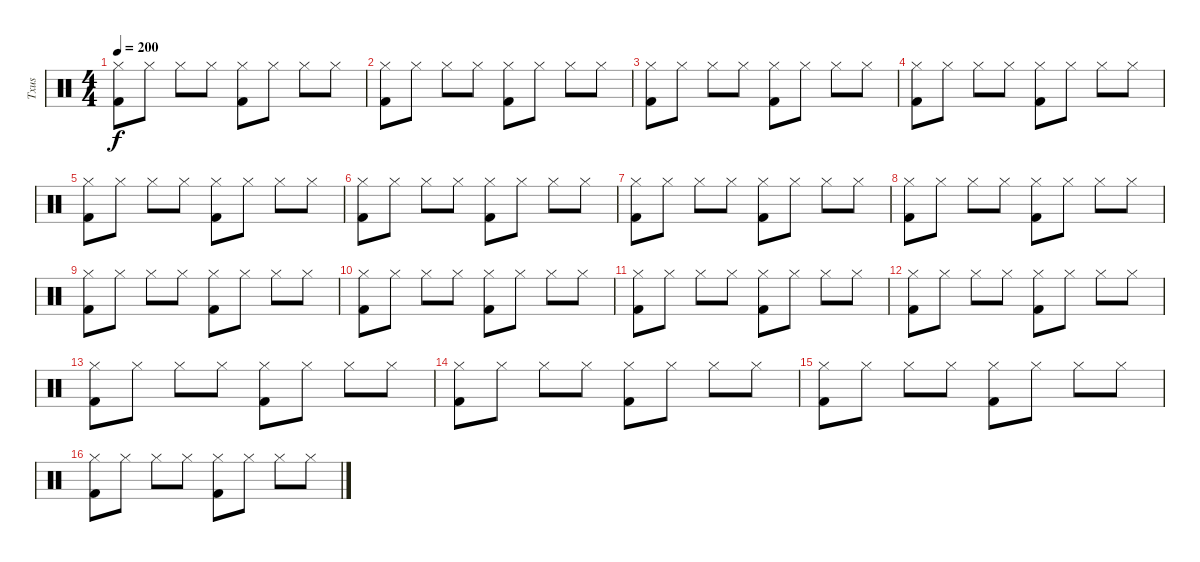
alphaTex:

\track ("Txus" "Txus") {instrument percussion}
\staff
\articulation defaults
\ts (4 4)
\tempo 200
\clef neutral
\ks c
("Kick (hit) 2" "Hi-Hat (closed)").8{dy f} "Hi-Hat (closed)".8 "Hi-Hat (closed)".8 "Hi-Hat (closed)".8 ("Kick (hit) 2" "Hi-Hat (closed)").8 "Hi-Hat (closed)".8 "Hi-Hat (closed)".8 "Hi-Hat (closed)".8 |
("Kick (hit) 2" "Hi-Hat (closed)").8 "Hi-Hat (closed)".8 "Hi-Hat (closed)".8 "Hi-Hat (closed)".8 ("Kick (hit) 2" "Hi-Hat (closed)").8 "Hi-Hat (closed)".8 "Hi-Hat (closed)".8 "Hi-Hat (closed)".8 |
("Kick (hit) 2" "Hi-Hat (closed)").8 "Hi-Hat (closed)".8 "Hi-Hat (closed)".8 "Hi-Hat (closed)".8 ("Kick (hit) 2" "Hi-Hat (closed)").8 "Hi-Hat (closed)".8 "Hi-Hat (closed)".8 "Hi-Hat (closed)".8 |
("Kick (hit) 2" "Hi-Hat (closed)").8 "Hi-Hat (closed)".8 "Hi-Hat (closed)".8 "Hi-Hat (closed)".8 ("Kick (hit) 2" "Hi-Hat (closed)").8 "Hi-Hat (closed)".8 "Hi-Hat (closed)".8 "Hi-Hat (closed)".8 |
("Kick (hit) 2" "Hi-Hat (closed)").8 "Hi-Hat (closed)".8 "Hi-Hat (closed)".8 "Hi-Hat (closed)".8 ("Kick (hit) 2" "Hi-Hat (closed)").8 "Hi-Hat (closed)".8 "Hi-Hat (closed)".8 "Hi-Hat (closed)".8 |
("Kick (hit) 2" "Hi-Hat (closed)").8 "Hi-Hat (closed)".8 "Hi-Hat (closed)".8 "Hi-Hat (closed)".8 ("Kick (hit) 2" "Hi-Hat (closed)").8 "Hi-Hat (closed)".8 "Hi-Hat (closed)".8 "Hi-Hat (closed)".8 |
("Kick (hit) 2" "Hi-Hat (closed)").8 "Hi-Hat (closed)".8 "Hi-Hat (closed)".8 "Hi-Hat (closed)".8 ("Kick (hit) 2" "Hi-Hat (closed)").8 "Hi-Hat (closed)".8 "Hi-Hat (closed)".8 "Hi-Hat (closed)".8 |
("Kick (hit) 2" "Hi-Hat (closed)").8 "Hi-Hat (closed)".8 "Hi-Hat (closed)".8 "Hi-Hat (closed)".8 ("Kick (hit) 2" "Hi-Hat (closed)").8 "Hi-Hat (closed)".8 "Hi-Hat (closed)".8 "Hi-Hat (closed)".8 |
("Kick (hit) 2" "Hi-Hat (closed)").8 "Hi-Hat (closed)".8 "Hi-Hat (closed)".8 "Hi-Hat (closed)".8 ("Kick (hit) 2" "Hi-Hat (closed)").8 "Hi-Hat (closed)".8 "Hi-Hat (closed)".8 "Hi-Hat (closed)".8 |
("Kick (hit) 2" "Hi-Hat (closed)").8 "Hi-Hat (closed)".8 "Hi-Hat (closed)".8 "Hi-Hat (closed)".8 ("Kick (hit) 2" "Hi-Hat (closed)").8 "Hi-Hat (closed)".8 "Hi-Hat (closed)".8 "Hi-Hat (closed)".8 |
("Kick (hit) 2" "Hi-Hat (closed)").8 "Hi-Hat (closed)".8 "Hi-Hat (closed)".8 "Hi-Hat (closed)".8 ("Kick (hit) 2" "Hi-Hat (closed)").8 "Hi-Hat (closed)".8 "Hi-Hat (closed)".8 "Hi-Hat (closed)".8 |
("Kick (hit) 2" "Hi-Hat (closed)").8 "Hi-Hat (closed)".8 "Hi-Hat (closed)".8 "Hi-Hat (closed)".8 ("Kick (hit) 2" "Hi-Hat (closed)").8 "Hi-Hat (closed)".8 "Hi-Hat (closed)".8 "Hi-Hat (closed)".8 |
("Kick (hit) 2" "Hi-Hat (closed)").8 "Hi-Hat (closed)".8 "Hi-Hat (closed)".8 "Hi-Hat (closed)".8 ("Kick (hit) 2" "Hi-Hat (closed)").8 "Hi-Hat (closed)".8 "Hi-Hat (closed)".8 "Hi-Hat (closed)".8 |
("Kick (hit) 2" "Hi-Hat (closed)").8 "Hi-Hat (closed)".8 "Hi-Hat (closed)".8 "Hi-Hat (closed)".8 ("Kick (hit) 2" "Hi-Hat (closed)").8 "Hi-Hat (closed)".8 "Hi-Hat (closed)".8 "Hi-Hat (closed)".8 |
("Kick (hit) 2" "Hi-Hat (closed)").8 "Hi-Hat (closed)".8 "Hi-Hat (closed)".8 "Hi-Hat (closed)".8 ("Kick (hit) 2" "Hi-Hat (closed)").8 "Hi-Hat (closed)".8 "Hi-Hat (closed)".8 "Hi-Hat (closed)".8 |
("Kick (hit) 2" "Hi-Hat (closed)").8 "Hi-Hat (closed)".8 "Hi-Hat (closed)".8 "Hi-Hat (closed)".8 ("Kick (hit) 2" "Hi-Hat (closed)").8 "Hi-Hat (closed)".8 "Hi-Hat (closed)".8 "Hi-Hat (closed)".8
